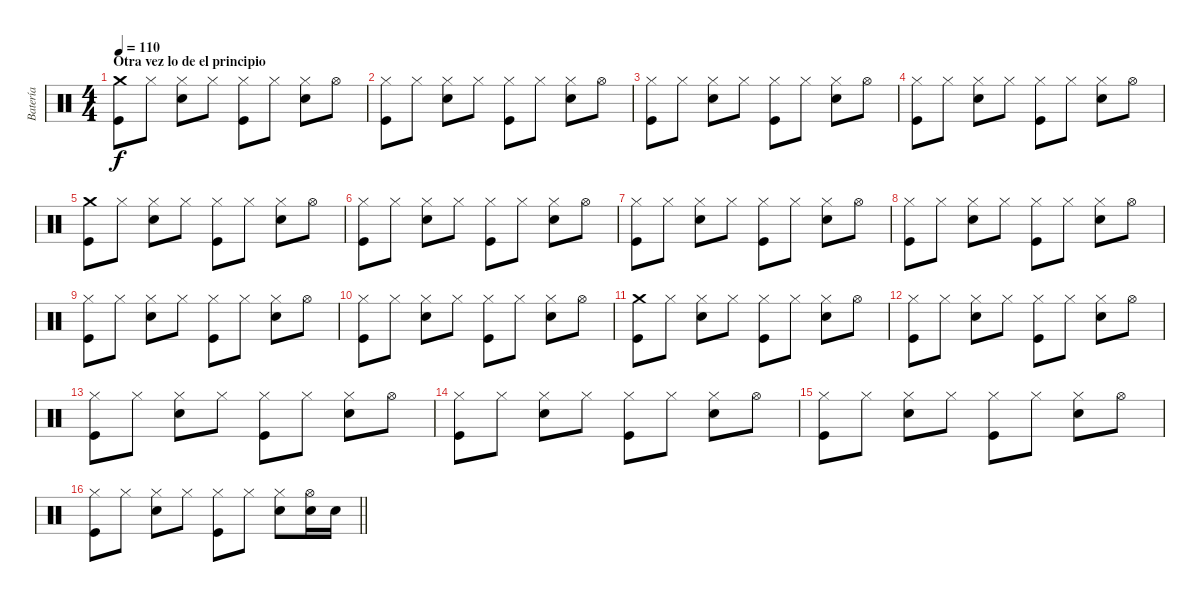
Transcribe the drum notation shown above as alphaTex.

\track ("Batería" "Batería") {instrument percussion}
\staff {score}
\articulation defaults
\ts (4 4)
\section ("" "Otra vez lo de el principio")
\tempo 110
\clef neutral
\ks c
("Crash medium (hit)" "Kick (hit)").8{dy f} "Hi-Hat (closed)".8 ("Hi-Hat (closed)" "Snare (hit) 2").8 "Hi-Hat (closed)".8 ("Hi-Hat (closed)" "Kick (hit)").8 "Hi-Hat (closed)".8 ("Hi-Hat (closed)" "Snare (hit) 2").8 "Hi-Hat (open)".8 |
("Hi-Hat (closed)" "Kick (hit)").8 "Hi-Hat (closed)".8 ("Hi-Hat (closed)" "Snare (hit) 2").8 "Hi-Hat (closed)".8 ("Hi-Hat (closed)" "Kick (hit)").8 "Hi-Hat (closed)".8 ("Hi-Hat (closed)" "Snare (hit) 2").8 "Hi-Hat (open)".8 |
("Hi-Hat (closed)" "Kick (hit)").8 "Hi-Hat (closed)".8 ("Hi-Hat (closed)" "Snare (hit) 2").8 "Hi-Hat (closed)".8 ("Hi-Hat (closed)" "Kick (hit)").8 "Hi-Hat (closed)".8 ("Hi-Hat (closed)" "Snare (hit) 2").8 "Hi-Hat (open)".8 |
("Hi-Hat (closed)" "Kick (hit)").8 "Hi-Hat (closed)".8 ("Hi-Hat (closed)" "Snare (hit) 2").8 "Hi-Hat (closed)".8 ("Hi-Hat (closed)" "Kick (hit)").8 "Hi-Hat (closed)".8 ("Hi-Hat (closed)" "Snare (hit) 2").8 "Hi-Hat (open)".8 |
("Crash medium (hit)" "Kick (hit)").8 "Hi-Hat (closed)".8 ("Hi-Hat (closed)" "Snare (hit) 2").8 "Hi-Hat (closed)".8 ("Hi-Hat (closed)" "Kick (hit)").8 "Hi-Hat (closed)".8 ("Hi-Hat (closed)" "Snare (hit) 2").8 "Hi-Hat (open)".8 |
("Hi-Hat (closed)" "Kick (hit)").8 "Hi-Hat (closed)".8 ("Hi-Hat (closed)" "Snare (hit) 2").8 "Hi-Hat (closed)".8 ("Hi-Hat (closed)" "Kick (hit)").8 "Hi-Hat (closed)".8 ("Hi-Hat (closed)" "Snare (hit) 2").8 "Hi-Hat (open)".8 |
("Hi-Hat (closed)" "Kick (hit)").8 "Hi-Hat (closed)".8 ("Hi-Hat (closed)" "Snare (hit) 2").8 "Hi-Hat (closed)".8 ("Hi-Hat (closed)" "Kick (hit)").8 "Hi-Hat (closed)".8 ("Hi-Hat (closed)" "Snare (hit) 2").8 "Hi-Hat (open)".8 |
("Hi-Hat (closed)" "Kick (hit)").8 "Hi-Hat (closed)".8 ("Hi-Hat (closed)" "Snare (hit) 2").8 "Hi-Hat (closed)".8 ("Hi-Hat (closed)" "Kick (hit)").8 "Hi-Hat (closed)".8 ("Hi-Hat (closed)" "Snare (hit) 2").8 "Hi-Hat (open)".8 |
("Hi-Hat (closed)" "Kick (hit)").8 "Hi-Hat (closed)".8 ("Hi-Hat (closed)" "Snare (hit) 2").8 "Hi-Hat (closed)".8 ("Hi-Hat (closed)" "Kick (hit)").8 "Hi-Hat (closed)".8 ("Hi-Hat (closed)" "Snare (hit) 2").8 "Hi-Hat (open)".8 |
("Hi-Hat (closed)" "Kick (hit)").8 "Hi-Hat (closed)".8 ("Hi-Hat (closed)" "Snare (hit) 2").8 "Hi-Hat (closed)".8 ("Hi-Hat (closed)" "Kick (hit)").8 "Hi-Hat (closed)".8 ("Hi-Hat (closed)" "Snare (hit) 2").8 "Hi-Hat (open)".8 |
("Crash medium (hit)" "Kick (hit)").8 "Hi-Hat (closed)".8 ("Hi-Hat (closed)" "Snare (hit) 2").8 "Hi-Hat (closed)".8 ("Hi-Hat (closed)" "Kick (hit)").8 "Hi-Hat (closed)".8 ("Hi-Hat (closed)" "Snare (hit) 2").8 "Hi-Hat (open)".8 |
("Hi-Hat (closed)" "Kick (hit)").8 "Hi-Hat (closed)".8 ("Hi-Hat (closed)" "Snare (hit) 2").8 "Hi-Hat (closed)".8 ("Hi-Hat (closed)" "Kick (hit)").8 "Hi-Hat (closed)".8 ("Hi-Hat (closed)" "Snare (hit) 2").8 "Hi-Hat (open)".8 |
("Hi-Hat (closed)" "Kick (hit)").8 "Hi-Hat (closed)".8 ("Hi-Hat (closed)" "Snare (hit) 2").8 "Hi-Hat (closed)".8 ("Hi-Hat (closed)" "Kick (hit)").8 "Hi-Hat (closed)".8 ("Hi-Hat (closed)" "Snare (hit) 2").8 "Hi-Hat (open)".8 |
("Hi-Hat (closed)" "Kick (hit)").8 "Hi-Hat (closed)".8 ("Hi-Hat (closed)" "Snare (hit) 2").8 "Hi-Hat (closed)".8 ("Hi-Hat (closed)" "Kick (hit)").8 "Hi-Hat (closed)".8 ("Hi-Hat (closed)" "Snare (hit) 2").8 "Hi-Hat (open)".8 |
("Hi-Hat (closed)" "Kick (hit)").8 "Hi-Hat (closed)".8 ("Hi-Hat (closed)" "Snare (hit) 2").8 "Hi-Hat (closed)".8 ("Hi-Hat (closed)" "Kick (hit)").8 "Hi-Hat (closed)".8 ("Hi-Hat (closed)" "Snare (hit) 2").8 "Hi-Hat (open)".8 |
\barLineRight lightlight
("Hi-Hat (closed)" "Kick (hit)").8 "Hi-Hat (closed)".8 ("Hi-Hat (closed)" "Snare (hit) 2").8 "Hi-Hat (closed)".8 ("Hi-Hat (closed)" "Kick (hit)").8 "Hi-Hat (closed)".8 ("Hi-Hat (closed)" "Snare (hit) 2").8 ("Hi-Hat (open)" "Snare (hit) 2").16 "Snare (hit) 2".16
